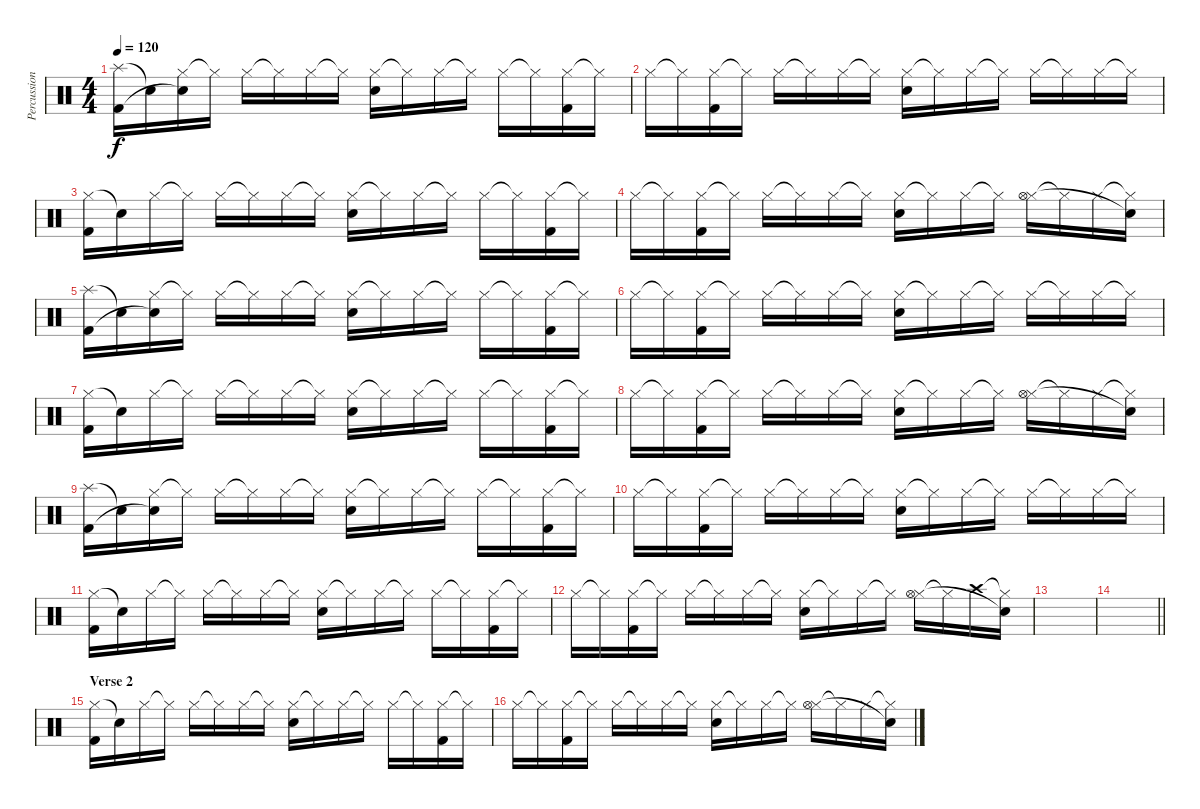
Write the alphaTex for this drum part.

\track ("Percussion" "Percussion") {instrument percussion}
\staff {score}
\articulation defaults
\ts (4 4)
\tempo 120
\clef neutral
\ks c
("Splash (hit)" "Kick (hit) 2").16{dy f} "Snare (hit)"{t}.16 ("Hi-Hat (closed)" "Snare (hit)"{t}).16 "Hi-Hat (closed)"{t}.16 "Hi-Hat (closed)".16 "Hi-Hat (closed)"{t}.16 "Hi-Hat (closed)".16 "Hi-Hat (closed)"{t}.16 ("Hi-Hat (closed)" "Snare (hit) 2").16 "Hi-Hat (closed)"{t}.16 "Hi-Hat (closed)".16 "Hi-Hat (closed)"{t}.16 "Hi-Hat (closed)".16 "Hi-Hat (closed)"{t}.16 ("Hi-Hat (closed)" "Kick (hit) 2").16 "Hi-Hat (closed)"{t}.16 |
"Hi-Hat (closed)".16 "Hi-Hat (closed)"{t}.16 ("Hi-Hat (closed)" "Kick (hit) 2").16 "Hi-Hat (closed)"{t}.16 "Hi-Hat (closed)".16 "Hi-Hat (closed)"{t}.16 "Hi-Hat (closed)".16 "Hi-Hat (closed)"{t}.16 ("Hi-Hat (closed)" "Snare (hit) 2").16 "Hi-Hat (closed)"{t}.16 "Hi-Hat (closed)".16 "Hi-Hat (closed)"{t}.16 "Hi-Hat (closed)".16 "Hi-Hat (closed)"{t}.16 "Hi-Hat (closed)".16 "Hi-Hat (closed)"{t}.16 |
("Hi-Hat (closed)" "Kick (hit) 2").16 "Snare (hit)"{t}.16 "Hi-Hat (closed)".16 "Hi-Hat (closed)"{t}.16 "Hi-Hat (closed)".16 "Hi-Hat (closed)"{t}.16 "Hi-Hat (closed)".16 "Hi-Hat (closed)"{t}.16 ("Hi-Hat (closed)" "Snare (hit) 2").16 "Hi-Hat (closed)"{t}.16 "Hi-Hat (closed)".16 "Hi-Hat (closed)"{t}.16 "Hi-Hat (closed)".16 "Hi-Hat (closed)"{t}.16 ("Hi-Hat (closed)" "Kick (hit) 2").16 "Hi-Hat (closed)"{t}.16 |
"Hi-Hat (closed)".16 "Hi-Hat (closed)"{t}.16 ("Hi-Hat (closed)" "Kick (hit) 2").16 "Hi-Hat (closed)"{t}.16 "Hi-Hat (closed)".16 "Hi-Hat (closed)"{t}.16 "Hi-Hat (closed)".16 "Hi-Hat (closed)"{t}.16 ("Hi-Hat (closed)" "Snare (hit) 2").16 "Hi-Hat (closed)"{t}.16 "Hi-Hat (closed)".16 "Hi-Hat (closed)"{t}.16 ("Hi-Hat (closed)" "Hi-Hat (open)").16 "Hi-Hat (closed)"{t}.16 "Hi-Hat (closed)".16 ("Hi-Hat (closed)"{t} "Snare (hit)"{t}).16 |
("Splash (hit)" "Kick (hit) 2").16 "Snare (hit)"{t}.16 ("Hi-Hat (closed)" "Snare (hit)"{t}).16 "Hi-Hat (closed)"{t}.16 "Hi-Hat (closed)".16 "Hi-Hat (closed)"{t}.16 "Hi-Hat (closed)".16 "Hi-Hat (closed)"{t}.16 ("Hi-Hat (closed)" "Snare (hit) 2").16 "Hi-Hat (closed)"{t}.16 "Hi-Hat (closed)".16 "Hi-Hat (closed)"{t}.16 "Hi-Hat (closed)".16 "Hi-Hat (closed)"{t}.16 ("Hi-Hat (closed)" "Kick (hit) 2").16 "Hi-Hat (closed)"{t}.16 |
"Hi-Hat (closed)".16 "Hi-Hat (closed)"{t}.16 ("Hi-Hat (closed)" "Kick (hit) 2").16 "Hi-Hat (closed)"{t}.16 "Hi-Hat (closed)".16 "Hi-Hat (closed)"{t}.16 "Hi-Hat (closed)".16 "Hi-Hat (closed)"{t}.16 ("Hi-Hat (closed)" "Snare (hit) 2").16 "Hi-Hat (closed)"{t}.16 "Hi-Hat (closed)".16 "Hi-Hat (closed)"{t}.16 "Hi-Hat (closed)".16 "Hi-Hat (closed)"{t}.16 "Hi-Hat (closed)".16 "Hi-Hat (closed)"{t}.16 |
("Hi-Hat (closed)" "Kick (hit) 2").16 "Snare (hit)"{t}.16 "Hi-Hat (closed)".16 "Hi-Hat (closed)"{t}.16 "Hi-Hat (closed)".16 "Hi-Hat (closed)"{t}.16 "Hi-Hat (closed)".16 "Hi-Hat (closed)"{t}.16 ("Hi-Hat (closed)" "Snare (hit) 2").16 "Hi-Hat (closed)"{t}.16 "Hi-Hat (closed)".16 "Hi-Hat (closed)"{t}.16 "Hi-Hat (closed)".16 "Hi-Hat (closed)"{t}.16 ("Hi-Hat (closed)" "Kick (hit) 2").16 "Hi-Hat (closed)"{t}.16 |
"Hi-Hat (closed)".16 "Hi-Hat (closed)"{t}.16 ("Hi-Hat (closed)" "Kick (hit) 2").16 "Hi-Hat (closed)"{t}.16 "Hi-Hat (closed)".16 "Hi-Hat (closed)"{t}.16 "Hi-Hat (closed)".16 "Hi-Hat (closed)"{t}.16 ("Hi-Hat (closed)" "Snare (hit) 2").16 "Hi-Hat (closed)"{t}.16 "Hi-Hat (closed)".16 "Hi-Hat (closed)"{t}.16 ("Hi-Hat (closed)" "Hi-Hat (open)").16 "Hi-Hat (closed)"{t}.16 "Hi-Hat (closed)".16 ("Hi-Hat (closed)"{t} "Snare (hit)"{t}).16 |
("Splash (hit)" "Kick (hit) 2").16 "Snare (hit)"{t}.16 ("Hi-Hat (closed)" "Snare (hit)"{t}).16 "Hi-Hat (closed)"{t}.16 "Hi-Hat (closed)".16 "Hi-Hat (closed)"{t}.16 "Hi-Hat (closed)".16 "Hi-Hat (closed)"{t}.16 ("Hi-Hat (closed)" "Snare (hit) 2").16 "Hi-Hat (closed)"{t}.16 "Hi-Hat (closed)".16 "Hi-Hat (closed)"{t}.16 "Hi-Hat (closed)".16 "Hi-Hat (closed)"{t}.16 ("Hi-Hat (closed)" "Kick (hit) 2").16 "Hi-Hat (closed)"{t}.16 |
"Hi-Hat (closed)".16 "Hi-Hat (closed)"{t}.16 ("Hi-Hat (closed)" "Kick (hit) 2").16 "Hi-Hat (closed)"{t}.16 "Hi-Hat (closed)".16 "Hi-Hat (closed)"{t}.16 "Hi-Hat (closed)".16 "Hi-Hat (closed)"{t}.16 ("Hi-Hat (closed)" "Snare (hit) 2").16 "Hi-Hat (closed)"{t}.16 "Hi-Hat (closed)".16 "Hi-Hat (closed)"{t}.16 "Hi-Hat (closed)".16 "Hi-Hat (closed)"{t}.16 "Hi-Hat (closed)".16 "Hi-Hat (closed)"{t}.16 |
("Hi-Hat (closed)" "Kick (hit) 2").16 "Snare (hit)"{t}.16 "Hi-Hat (closed)".16 "Hi-Hat (closed)"{t}.16 "Hi-Hat (closed)".16 "Hi-Hat (closed)"{t}.16 "Hi-Hat (closed)".16 "Hi-Hat (closed)"{t}.16 ("Hi-Hat (closed)" "Snare (hit) 2").16 "Hi-Hat (closed)"{t}.16 "Hi-Hat (closed)".16 "Hi-Hat (closed)"{t}.16 "Hi-Hat (closed)".16 "Hi-Hat (closed)"{t}.16 ("Hi-Hat (closed)" "Kick (hit) 2").16 "Hi-Hat (closed)"{t}.16 |
"Hi-Hat (closed)".16 "Hi-Hat (closed)"{t}.16 ("Hi-Hat (closed)" "Kick (hit) 2").16 "Hi-Hat (closed)"{t}.16 "Hi-Hat (closed)".16 "Hi-Hat (closed)"{t}.16 "Hi-Hat (closed)".16 "Hi-Hat (closed)"{t}.16 ("Hi-Hat (closed)" "Snare (hit) 2").16 "Hi-Hat (closed)"{t}.16 "Hi-Hat (closed)".16 "Hi-Hat (closed)"{t}.16 ("Hi-Hat (closed)" "Hi-Hat (open)").16 "Hi-Hat (closed)"{t}.16 "Crash high (hit)".16 ("Hi-Hat (closed)"{t} "Snare (hit)"{t}).16 |
|
\barLineRight lightlight
|
\section ("" "Verse 2")
("Hi-Hat (closed)" "Kick (hit) 2").16 "Snare (hit)"{t}.16 "Hi-Hat (closed)".16 "Hi-Hat (closed)"{t}.16 "Hi-Hat (closed)".16 "Hi-Hat (closed)"{t}.16 "Hi-Hat (closed)".16 "Hi-Hat (closed)"{t}.16 ("Hi-Hat (closed)" "Snare (hit) 2").16 "Hi-Hat (closed)"{t}.16 "Hi-Hat (closed)".16 "Hi-Hat (closed)"{t}.16 "Hi-Hat (closed)".16 "Hi-Hat (closed)"{t}.16 ("Hi-Hat (closed)" "Kick (hit) 2").16 "Hi-Hat (closed)"{t}.16 |
"Hi-Hat (closed)".16 "Hi-Hat (closed)"{t}.16 ("Hi-Hat (closed)" "Kick (hit) 2").16 "Hi-Hat (closed)"{t}.16 "Hi-Hat (closed)".16 "Hi-Hat (closed)"{t}.16 "Hi-Hat (closed)".16 "Hi-Hat (closed)"{t}.16 ("Hi-Hat (closed)" "Snare (hit) 2").16 "Hi-Hat (closed)"{t}.16 "Hi-Hat (closed)".16 "Hi-Hat (closed)"{t}.16 ("Hi-Hat (closed)" "Hi-Hat (open)").16 "Hi-Hat (closed)"{t}.16 "Hi-Hat (closed)".16 ("Hi-Hat (closed)"{t} "Snare (hit)"{t}).16
